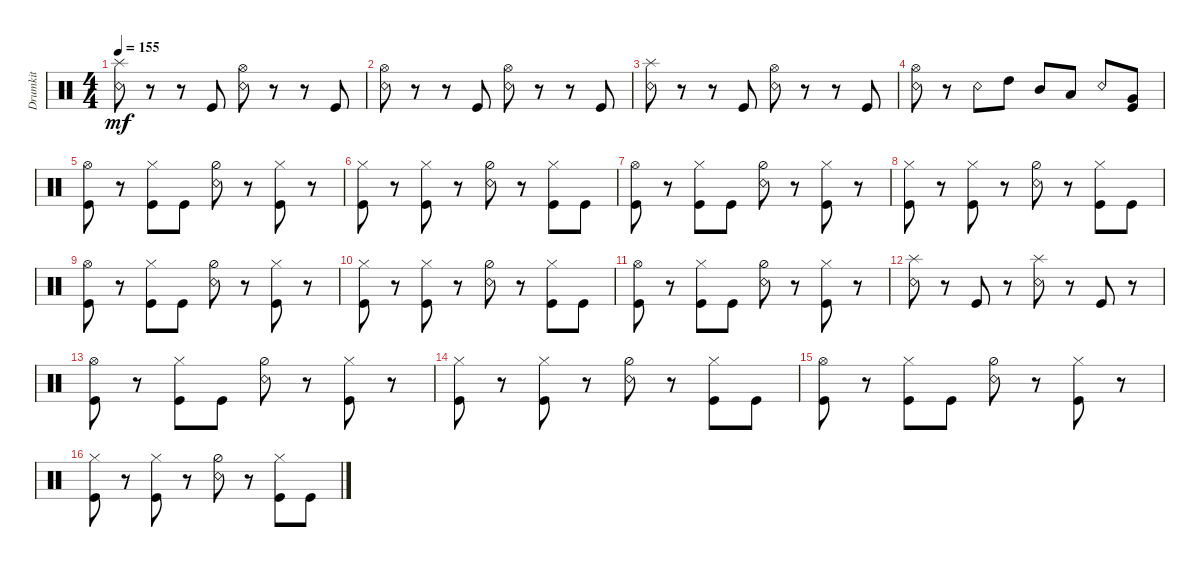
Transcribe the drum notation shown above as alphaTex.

\track ("Drumkit" "Drumkit") {instrument percussion}
\staff {score}
\articulation defaults
\ts (4 4)
\tempo 155
\clef neutral
\ks c
("Snare (rim shot)" "Splash (hit)").8{dy mf} r.8 r.8 "Kick (hit)".8 ("Snare (rim shot)" "Hi-Hat (open)").8 r.8 r.8 "Kick (hit)".8 |
("Snare (rim shot)" "Hi-Hat (open)").8 r.8 r.8 "Kick (hit)".8 ("Snare (rim shot)" "Hi-Hat (open)").8 r.8 r.8 "Kick (hit)".8 |
("Snare (rim shot)" "Splash (hit)").8 r.8 r.8 "Kick (hit)".8 ("Snare (rim shot)" "Hi-Hat (open)").8 r.8 r.8 "Kick (hit)".8 |
("Snare (rim shot)" "Hi-Hat (open)").8 r.8 "Snare (rim shot)".8 "High Tom (hit)".8 "Mid Tom (hit)".8 "Low Tom (hit)".8 "Snare (rim shot)".8 ("Very Low Tom (hit)" "Kick (hit)").8 |
("Kick (hit)" "Hi-Hat (open)").8 r.8 ("Kick (hit)" "Hi-Hat (closed)").8 "Kick (hit)".8 ("Snare (rim shot)" "Hi-Hat (half)").8 r.8 ("Kick (hit)" "Hi-Hat (closed)").8 r.8 |
("Kick (hit)" "Hi-Hat (closed)").8 r.8 ("Kick (hit)" "Hi-Hat (closed)").8 r.8 ("Snare (rim shot)" "Hi-Hat (half)").8 r.8 ("Kick (hit)" "Hi-Hat (closed)").8 "Kick (hit)".8 |
("Kick (hit)" "Hi-Hat (open)").8 r.8 ("Kick (hit)" "Hi-Hat (closed)").8 "Kick (hit)".8 ("Snare (rim shot)" "Hi-Hat (half)").8 r.8 ("Kick (hit)" "Hi-Hat (closed)").8 r.8 |
("Kick (hit)" "Hi-Hat (closed)").8 r.8 ("Kick (hit)" "Hi-Hat (closed)").8 r.8 ("Snare (rim shot)" "Hi-Hat (half)").8 r.8 ("Kick (hit)" "Hi-Hat (closed)").8 "Kick (hit)".8 |
("Kick (hit)" "Hi-Hat (open)").8 r.8 ("Kick (hit)" "Hi-Hat (closed)").8 "Kick (hit)".8 ("Snare (rim shot)" "Hi-Hat (half)").8 r.8 ("Kick (hit)" "Hi-Hat (closed)").8 r.8 |
("Kick (hit)" "Hi-Hat (closed)").8 r.8 ("Kick (hit)" "Hi-Hat (closed)").8 r.8 ("Snare (rim shot)" "Hi-Hat (half)").8 r.8 ("Kick (hit)" "Hi-Hat (closed)").8 "Kick (hit)".8 |
("Kick (hit)" "Hi-Hat (open)").8 r.8 ("Kick (hit)" "Hi-Hat (closed)").8 "Kick (hit)".8 ("Snare (rim shot)" "Hi-Hat (half)").8 r.8 ("Kick (hit)" "Hi-Hat (closed)").8 r.8 |
("Snare (rim shot)" "Splash (hit)").8 r.8 "Kick (hit)".8 r.8 ("Snare (rim shot)" "Splash (hit)").8 r.8 "Kick (hit)".8 r.8 |
("Kick (hit)" "Hi-Hat (open)").8 r.8 ("Kick (hit)" "Hi-Hat (closed)").8 "Kick (hit)".8 ("Snare (rim shot)" "Hi-Hat (half)").8 r.8 ("Kick (hit)" "Hi-Hat (closed)").8 r.8 |
("Kick (hit)" "Hi-Hat (closed)").8 r.8 ("Kick (hit)" "Hi-Hat (closed)").8 r.8 ("Snare (rim shot)" "Hi-Hat (half)").8 r.8 ("Kick (hit)" "Hi-Hat (closed)").8 "Kick (hit)".8 |
("Kick (hit)" "Hi-Hat (open)").8 r.8 ("Kick (hit)" "Hi-Hat (closed)").8 "Kick (hit)".8 ("Snare (rim shot)" "Hi-Hat (half)").8 r.8 ("Kick (hit)" "Hi-Hat (closed)").8 r.8 |
("Kick (hit)" "Hi-Hat (closed)").8 r.8 ("Kick (hit)" "Hi-Hat (closed)").8 r.8 ("Snare (rim shot)" "Hi-Hat (half)").8 r.8 ("Kick (hit)" "Hi-Hat (closed)").8 "Kick (hit)".8
